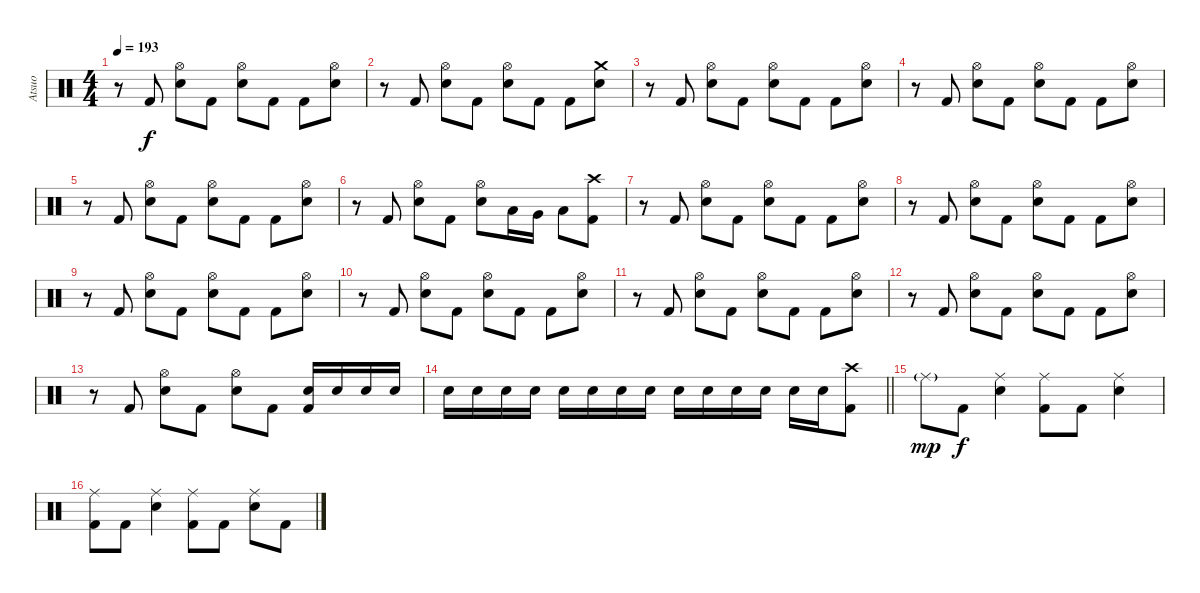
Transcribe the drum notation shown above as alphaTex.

\track ("Atsuo" "Atsuo") {instrument percussion}
\staff {score}
\articulation defaults
\ts (4 4)
\tempo 193
\clef neutral
\ks c
r.8{dy f} "Kick (hit) 2".8 ("Hi-Hat (open)" "Electric Snare (hit)").8 "Kick (hit) 2".8 ("Hi-Hat (open)" "Electric Snare (hit)").8 "Kick (hit) 2".8 "Kick (hit) 2".8 ("Hi-Hat (open)" "Electric Snare (hit)").8 |
r.8 "Kick (hit) 2".8 ("Hi-Hat (open)" "Electric Snare (hit)").8 "Kick (hit) 2".8 ("Hi-Hat (open)" "Electric Snare (hit)").8 "Kick (hit) 2".8 "Kick (hit) 2".8 ("Crash medium (hit)" "Electric Snare (hit)").8 |
r.8 "Kick (hit) 2".8 ("Hi-Hat (open)" "Electric Snare (hit)").8 "Kick (hit) 2".8 ("Hi-Hat (open)" "Electric Snare (hit)").8 "Kick (hit) 2".8 "Kick (hit) 2".8 ("Hi-Hat (open)" "Electric Snare (hit)").8 |
r.8 "Kick (hit) 2".8 ("Hi-Hat (open)" "Electric Snare (hit)").8 "Kick (hit) 2".8 ("Hi-Hat (open)" "Electric Snare (hit)").8 "Kick (hit) 2".8 "Kick (hit) 2".8 ("Hi-Hat (open)" "Electric Snare (hit)").8 |
r.8 "Kick (hit) 2".8 ("Hi-Hat (open)" "Electric Snare (hit)").8 "Kick (hit) 2".8 ("Hi-Hat (open)" "Electric Snare (hit)").8 "Kick (hit) 2".8 "Kick (hit) 2".8 ("Hi-Hat (open)" "Electric Snare (hit)").8 |
r.8 "Kick (hit) 2".8 ("Hi-Hat (open)" "Electric Snare (hit)").8 "Kick (hit) 2".8 ("Hi-Hat (open)" "Electric Snare (hit)").8 "Low Tom (hit)".16 "Very Low Tom (hit)".16 "Low Floor Tom (hit)".8 ("Crash high (hit)" "Kick (hit) 2").8 |
r.8 "Kick (hit) 2".8 ("Hi-Hat (open)" "Electric Snare (hit)").8 "Kick (hit) 2".8 ("Hi-Hat (open)" "Electric Snare (hit)").8 "Kick (hit) 2".8 "Kick (hit) 2".8 ("Hi-Hat (open)" "Electric Snare (hit)").8 |
r.8 "Kick (hit) 2".8 ("Hi-Hat (open)" "Electric Snare (hit)").8 "Kick (hit) 2".8 ("Hi-Hat (open)" "Electric Snare (hit)").8 "Kick (hit) 2".8 "Kick (hit) 2".8 ("Hi-Hat (open)" "Electric Snare (hit)").8 |
r.8 "Kick (hit) 2".8 ("Hi-Hat (open)" "Electric Snare (hit)").8 "Kick (hit) 2".8 ("Hi-Hat (open)" "Electric Snare (hit)").8 "Kick (hit) 2".8 "Kick (hit) 2".8 ("Hi-Hat (open)" "Electric Snare (hit)").8 |
r.8 "Kick (hit) 2".8 ("Hi-Hat (open)" "Electric Snare (hit)").8 "Kick (hit) 2".8 ("Hi-Hat (open)" "Electric Snare (hit)").8 "Kick (hit) 2".8 "Kick (hit) 2".8 ("Hi-Hat (open)" "Electric Snare (hit)").8 |
r.8 "Kick (hit) 2".8 ("Hi-Hat (open)" "Electric Snare (hit)").8 "Kick (hit) 2".8 ("Hi-Hat (open)" "Electric Snare (hit)").8 "Kick (hit) 2".8 "Kick (hit) 2".8 ("Hi-Hat (open)" "Electric Snare (hit)").8 |
r.8 "Kick (hit) 2".8 ("Hi-Hat (open)" "Electric Snare (hit)").8 "Kick (hit) 2".8 ("Hi-Hat (open)" "Electric Snare (hit)").8 "Kick (hit) 2".8 "Kick (hit) 2".8 ("Hi-Hat (open)" "Electric Snare (hit)").8 |
r.8 "Kick (hit) 2".8 ("Hi-Hat (open)" "Electric Snare (hit)").8 "Kick (hit) 2".8 ("Hi-Hat (open)" "Electric Snare (hit)").8 "Kick (hit) 2".8 ("Electric Snare (hit)" "Kick (hit) 2").16 "Electric Snare (hit)".16 "Electric Snare (hit)".16 "Electric Snare (hit)".16 |
\barLineRight lightlight "Electric Snare (hit)".16 "Electric Snare (hit)".16 "Electric Snare (hit)".16 "Electric Snare (hit)".16 "Electric Snare (hit)".16 "Electric Snare (hit)".16 "Electric Snare (hit)".16 "Electric Snare (hit)".16 "Electric Snare (hit)".16 "Electric Snare (hit)".16 "Electric Snare (hit)".16 "Electric Snare (hit)".16 "Electric Snare (hit)".16 "Electric Snare (hit)".16
("Crash high (hit)" "Kick (hit) 2").8 |
\section ("" "")
"Ride (middle)"{g}.8{dy mp} "Kick (hit) 2".8{dy f} ("Ride (middle)" "Electric Snare (hit)").4 ("Ride (middle)" "Kick (hit) 2").8 "Kick (hit) 2".8 ("Ride (middle)" "Electric Snare (hit)").4 |
("Ride (middle)" "Kick (hit) 2").8 "Kick (hit) 2".8 ("Ride (middle)" "Electric Snare (hit)").4 ("Ride (middle)" "Kick (hit) 2").8 "Kick (hit) 2".8 ("Ride (middle)" "Electric Snare (hit)").8 "Kick (hit) 2".8
